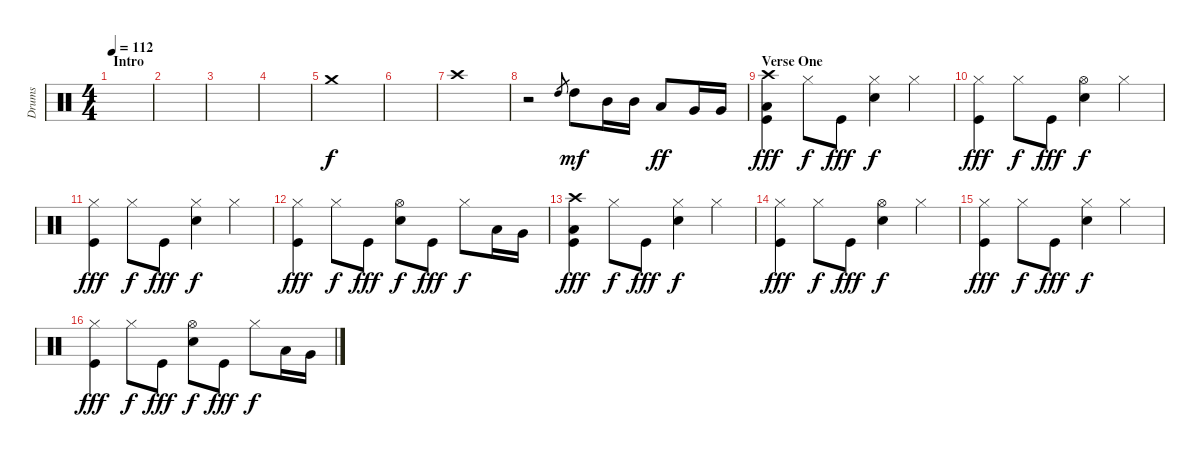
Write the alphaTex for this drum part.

\track ("Drums" "Drums") {instrument percussion}
\staff {score}
\articulation defaults
\ts (4 4)
\section ("" "Intro")
\tempo 112
\clef neutral
\ks c
|
|
|
|
"Crash medium (hit)".1 |
|
"Crash high (hit)".1 |
r.2 "High Tom (hit)".8{gr} "High Tom (hit)".8{dy mf} "Mid Tom (hit)".16 "Mid Tom (hit)".16 "Low Tom (hit)".8{dy ff} "Very Low Tom (hit)".16 "Very Low Tom (hit)".16 |
\section ("" "Verse One")
("Crash high (hit)" "Low Floor Tom (hit)" "Kick (hit)").4{dy fff} "Hi-Hat (closed)".8{dy f} "Kick (hit)".8{dy fff} ("Hi-Hat (closed)" "Snare (hit) 2").4{dy f} "Hi-Hat (closed)".4 |
("Hi-Hat (closed)" "Kick (hit)").4{dy fff} "Hi-Hat (closed)".8{dy f} "Kick (hit)".8{dy fff} ("Hi-Hat (open)" "Snare (hit) 2").4{dy f} "Hi-Hat (closed)".4 |
("Hi-Hat (closed)" "Kick (hit)").4{dy fff} "Hi-Hat (closed)".8{dy f} "Kick (hit)".8{dy fff} ("Hi-Hat (closed)" "Snare (hit) 2").4{dy f} "Hi-Hat (closed)".4 |
("Hi-Hat (closed)" "Kick (hit)").4{dy fff} "Hi-Hat (closed)".8{dy f} "Kick (hit)".8{dy fff} ("Hi-Hat (open)" "Snare (hit) 2").8{dy f} "Kick (hit)".8{dy fff} "Hi-Hat (closed)".8{dy f} "Low Tom (hit)".16 "Very Low Tom (hit)".16 |
("Crash high (hit)" "Low Floor Tom (hit)" "Kick (hit)").4{dy fff} "Hi-Hat (closed)".8{dy f} "Kick (hit)".8{dy fff} ("Hi-Hat (closed)" "Snare (hit) 2").4{dy f} "Hi-Hat (closed)".4 |
("Hi-Hat (closed)" "Kick (hit)").4{dy fff} "Hi-Hat (closed)".8{dy f} "Kick (hit)".8{dy fff} ("Hi-Hat (open)" "Snare (hit) 2").4{dy f} "Hi-Hat (closed)".4 |
("Hi-Hat (closed)" "Kick (hit)").4{dy fff} "Hi-Hat (closed)".8{dy f} "Kick (hit)".8{dy fff} ("Hi-Hat (closed)" "Snare (hit) 2").4{dy f} "Hi-Hat (closed)".4 |
("Hi-Hat (closed)" "Kick (hit)").4{dy fff} "Hi-Hat (closed)".8{dy f} "Kick (hit)".8{dy fff} ("Hi-Hat (open)" "Snare (hit) 2").8{dy f} "Kick (hit)".8{dy fff} "Hi-Hat (closed)".8{dy f} "Low Tom (hit)".16 "Very Low Tom (hit)".16
